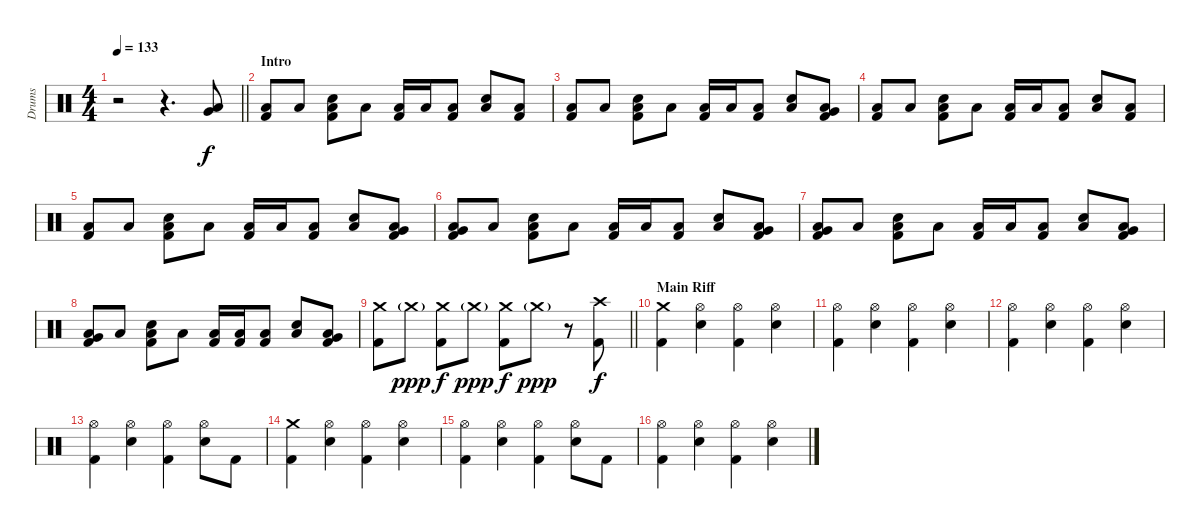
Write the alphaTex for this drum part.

\track ("Drums" "Drums") {instrument percussion}
\staff {score}
\articulation defaults
\ts (4 4)
\tempo 133
\clef neutral
\barLineRight lightlight
\ks c
r.2{dy f} r.4{d} ("Low Tom (hit)" "Very Low Tom (hit)").8 |
\section ("" "Intro")
("Low Floor Tom (hit)" "Kick (hit) 2").8 "Low Floor Tom (hit)".8 ("Low Floor Tom (hit)" "Snare (hit) 2" "Kick (hit) 2").8 "Low Floor Tom (hit)".8 ("Low Floor Tom (hit)" "Kick (hit) 2").16 "Low Floor Tom (hit)".16 ("Low Floor Tom (hit)" "Kick (hit) 2").8 ("Low Floor Tom (hit)" "Snare (hit) 2").8 ("Low Floor Tom (hit)" "Kick (hit) 2").8 |
("Low Floor Tom (hit)" "Kick (hit) 2").8 "Low Floor Tom (hit)".8 ("Low Floor Tom (hit)" "Snare (hit) 2" "Kick (hit) 2").8 "Low Floor Tom (hit)".8 ("Low Floor Tom (hit)" "Kick (hit) 2").16 "Low Floor Tom (hit)".16 ("Low Floor Tom (hit)" "Kick (hit) 2").8 ("Low Floor Tom (hit)" "Snare (hit) 2").8 ("Low Tom (hit)" "Very Low Tom (hit)" "Kick (hit) 2").8 |
("Low Floor Tom (hit)" "Kick (hit) 2").8 "Low Floor Tom (hit)".8 ("Low Floor Tom (hit)" "Snare (hit) 2" "Kick (hit) 2").8 "Low Floor Tom (hit)".8 ("Low Floor Tom (hit)" "Kick (hit) 2").16 "Low Floor Tom (hit)".16 ("Low Floor Tom (hit)" "Kick (hit) 2").8 ("Low Floor Tom (hit)" "Snare (hit) 2").8 ("Low Floor Tom (hit)" "Kick (hit) 2").8 |
("Low Floor Tom (hit)" "Kick (hit) 2").8 "Low Floor Tom (hit)".8 ("Low Floor Tom (hit)" "Snare (hit) 2" "Kick (hit) 2").8 "Low Floor Tom (hit)".8 ("Low Floor Tom (hit)" "Kick (hit) 2").16 "Low Floor Tom (hit)".16 ("Low Floor Tom (hit)" "Kick (hit) 2").8 ("Low Floor Tom (hit)" "Snare (hit) 2").8 ("Low Tom (hit)" "Very Low Tom (hit)" "Kick (hit) 2").8 |
("Very Low Tom (hit)" "Low Floor Tom (hit)" "Kick (hit) 2").8 "Low Floor Tom (hit)".8 ("Low Floor Tom (hit)" "Snare (hit) 2" "Kick (hit) 2").8 "Low Floor Tom (hit)".8 ("Low Floor Tom (hit)" "Kick (hit) 2").16 "Low Floor Tom (hit)".16 ("Low Floor Tom (hit)" "Kick (hit) 2").8 ("Low Floor Tom (hit)" "Snare (hit) 2").8 ("Low Tom (hit)" "Very Low Tom (hit)" "Kick (hit) 2").8 |
("Very Low Tom (hit)" "Low Floor Tom (hit)" "Kick (hit) 2").8 "Low Floor Tom (hit)".8 ("Low Floor Tom (hit)" "Snare (hit) 2" "Kick (hit) 2").8 "Low Floor Tom (hit)".8 ("Low Floor Tom (hit)" "Kick (hit) 2").16 "Low Floor Tom (hit)".16 ("Low Floor Tom (hit)" "Kick (hit) 2").8 ("Low Floor Tom (hit)" "Snare (hit) 2").8 ("Low Tom (hit)" "Very Low Tom (hit)" "Kick (hit) 2").8 |
("Very Low Tom (hit)" "Low Floor Tom (hit)" "Kick (hit) 2").8 "Low Floor Tom (hit)".8 ("Low Floor Tom (hit)" "Snare (hit) 2" "Kick (hit) 2").8 "Low Floor Tom (hit)".8 ("Low Floor Tom (hit)" "Kick (hit) 2").16 ("Low Floor Tom (hit)" "Kick (hit) 2").16 ("Low Floor Tom (hit)" "Kick (hit) 2").8 ("Low Floor Tom (hit)" "Snare (hit) 2").8 ("Low Tom (hit)" "Very Low Tom (hit)" "Kick (hit) 2").8 |
\barLineRight lightlight
("Crash medium (hit)" "Kick (hit) 2").8 "Crash medium (hit)"{g}.8{dy ppp} ("Crash medium (hit)" "Kick (hit) 2").8{dy f} "Crash medium (hit)"{g}.8{dy ppp} ("Crash medium (hit)" "Kick (hit) 2").8{dy f} "Crash medium (hit)"{g}.8{dy ppp} r.8 ("Crash high (hit)" "Kick (hit) 2").8{dy f} |
\section ("" "Main Riff")
("Crash medium (hit)" "Kick (hit) 2").4 ("Hi-Hat (open)" "Snare (hit) 2").4 ("Hi-Hat (open)" "Kick (hit) 2").4 ("Hi-Hat (open)" "Snare (hit) 2").4 |
("Hi-Hat (open)" "Kick (hit) 2").4 ("Hi-Hat (open)" "Snare (hit) 2").4 ("Hi-Hat (open)" "Kick (hit) 2").4 ("Hi-Hat (open)" "Snare (hit) 2").4 |
("Hi-Hat (open)" "Kick (hit) 2").4 ("Hi-Hat (open)" "Snare (hit) 2").4 ("Hi-Hat (open)" "Kick (hit) 2").4 ("Hi-Hat (open)" "Snare (hit) 2").4 |
("Hi-Hat (open)" "Kick (hit) 2").4 ("Hi-Hat (open)" "Snare (hit) 2").4 ("Hi-Hat (open)" "Kick (hit) 2").4 ("Hi-Hat (open)" "Snare (hit) 2").8 "Kick (hit) 2".8 |
("Crash medium (hit)" "Kick (hit) 2").4 ("Hi-Hat (open)" "Snare (hit) 2").4 ("Hi-Hat (open)" "Kick (hit) 2").4 ("Hi-Hat (open)" "Snare (hit) 2").4 |
("Hi-Hat (open)" "Kick (hit) 2").4 ("Hi-Hat (open)" "Snare (hit) 2").4 ("Hi-Hat (open)" "Kick (hit) 2").4 ("Hi-Hat (open)" "Snare (hit) 2").8 "Kick (hit) 2".8 |
("Hi-Hat (open)" "Kick (hit) 2").4 ("Hi-Hat (open)" "Snare (hit) 2").4 ("Hi-Hat (open)" "Kick (hit) 2").4 ("Hi-Hat (open)" "Snare (hit) 2").4
